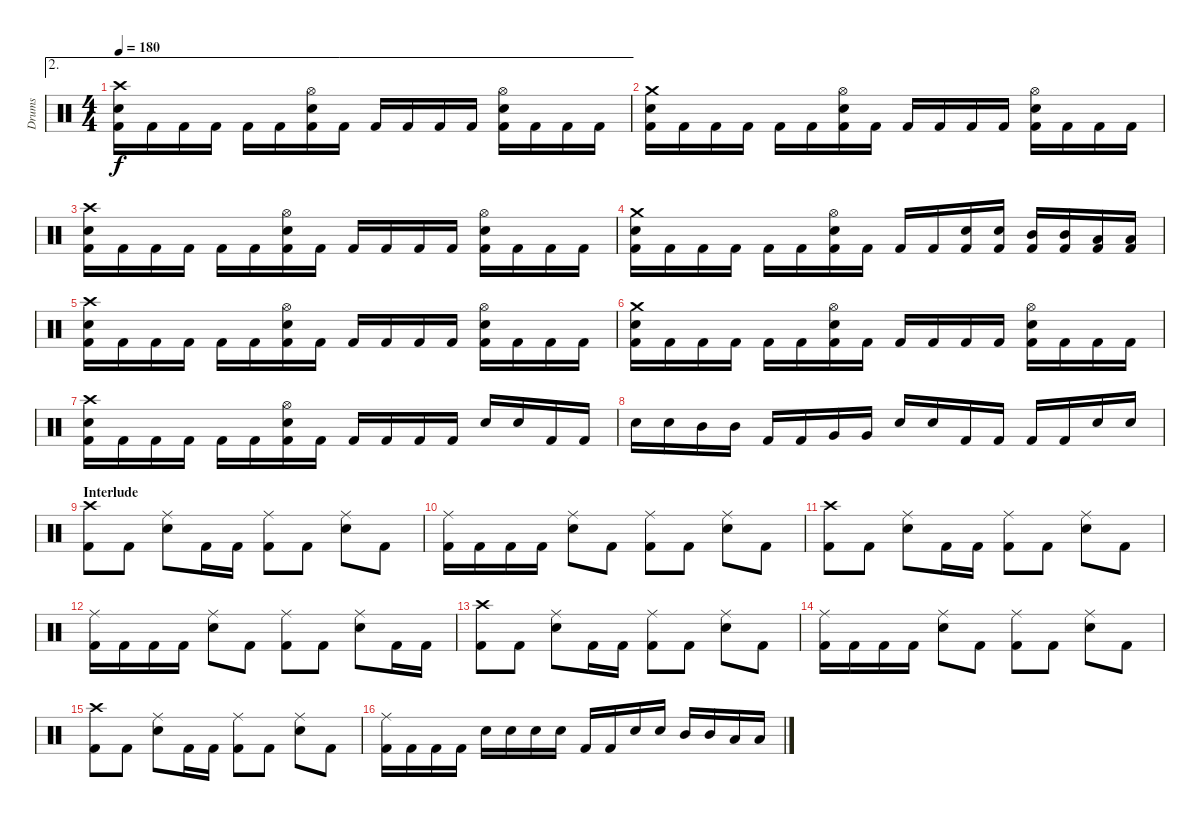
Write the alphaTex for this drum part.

\track ("Drums" "Drums") {instrument percussion}
\staff {score}
\articulation defaults
\ae 2
\ts (4 4)
\tempo 180
\clef neutral
\ks c
("Crash high (hit)" "Electric Snare (hit)" "Kick (hit) 2").16{dy f} "Kick (hit) 2".16 "Kick (hit) 2".16 "Kick (hit) 2".16 "Kick (hit) 2".16 "Kick (hit) 2".16 ("Hi-Hat (open)" "Electric Snare (hit)" "Kick (hit) 2").16 "Kick (hit) 2".16 "Kick (hit) 2".16 "Kick (hit) 2".16 "Kick (hit) 2".16 "Kick (hit) 2".16 ("Hi-Hat (open)" "Electric Snare (hit)" "Kick (hit) 2").16 "Kick (hit) 2".16 "Kick (hit) 2".16 "Kick (hit) 2".16 |
("Crash medium (hit)" "Electric Snare (hit)" "Kick (hit) 2").16 "Kick (hit) 2".16 "Kick (hit) 2".16 "Kick (hit) 2".16 "Kick (hit) 2".16 "Kick (hit) 2".16 ("Hi-Hat (open)" "Electric Snare (hit)" "Kick (hit) 2").16 "Kick (hit) 2".16 "Kick (hit) 2".16 "Kick (hit) 2".16 "Kick (hit) 2".16 "Kick (hit) 2".16 ("Hi-Hat (open)" "Electric Snare (hit)" "Kick (hit) 2").16 "Kick (hit) 2".16 "Kick (hit) 2".16 "Kick (hit) 2".16 |
("Crash high (hit)" "Electric Snare (hit)" "Kick (hit) 2").16 "Kick (hit) 2".16 "Kick (hit) 2".16 "Kick (hit) 2".16 "Kick (hit) 2".16 "Kick (hit) 2".16 ("Hi-Hat (open)" "Electric Snare (hit)" "Kick (hit) 2").16 "Kick (hit) 2".16 "Kick (hit) 2".16 "Kick (hit) 2".16 "Kick (hit) 2".16 "Kick (hit) 2".16 ("Hi-Hat (open)" "Electric Snare (hit)" "Kick (hit) 2").16 "Kick (hit) 2".16 "Kick (hit) 2".16 "Kick (hit) 2".16 |
("Crash medium (hit)" "Electric Snare (hit)" "Kick (hit) 2").16 "Kick (hit) 2".16 "Kick (hit) 2".16 "Kick (hit) 2".16 "Kick (hit) 2".16 "Kick (hit) 2".16 ("Hi-Hat (open)" "Electric Snare (hit)" "Kick (hit) 2").16 "Kick (hit) 2".16 "Kick (hit) 2".16 "Kick (hit) 2".16 ("Electric Snare (hit)" "Kick (hit) 2").16 ("Electric Snare (hit)" "Kick (hit) 2").16 ("Mid Tom (hit)" "Kick (hit) 2").16 ("Mid Tom (hit)" "Kick (hit) 2").16 ("Low Tom (hit)" "Kick (hit) 2").16 ("Low Tom (hit)" "Kick (hit) 2").16 |
("Crash high (hit)" "Electric Snare (hit)" "Kick (hit) 2").16 "Kick (hit) 2".16 "Kick (hit) 2".16 "Kick (hit) 2".16 "Kick (hit) 2".16 "Kick (hit) 2".16 ("Hi-Hat (open)" "Electric Snare (hit)" "Kick (hit) 2").16 "Kick (hit) 2".16 "Kick (hit) 2".16 "Kick (hit) 2".16 "Kick (hit) 2".16 "Kick (hit) 2".16 ("Hi-Hat (open)" "Electric Snare (hit)" "Kick (hit) 2").16 "Kick (hit) 2".16 "Kick (hit) 2".16 "Kick (hit) 2".16 |
("Crash medium (hit)" "Electric Snare (hit)" "Kick (hit) 2").16 "Kick (hit) 2".16 "Kick (hit) 2".16 "Kick (hit) 2".16 "Kick (hit) 2".16 "Kick (hit) 2".16 ("Hi-Hat (open)" "Electric Snare (hit)" "Kick (hit) 2").16 "Kick (hit) 2".16 "Kick (hit) 2".16 "Kick (hit) 2".16 "Kick (hit) 2".16 "Kick (hit) 2".16 ("Hi-Hat (open)" "Electric Snare (hit)" "Kick (hit) 2").16 "Kick (hit) 2".16 "Kick (hit) 2".16 "Kick (hit) 2".16 |
("Crash high (hit)" "Electric Snare (hit)" "Kick (hit) 2").16 "Kick (hit) 2".16 "Kick (hit) 2".16 "Kick (hit) 2".16 "Kick (hit) 2".16 "Kick (hit) 2".16 ("Hi-Hat (open)" "Electric Snare (hit)" "Kick (hit) 2").16 "Kick (hit) 2".16 "Kick (hit) 2".16 "Kick (hit) 2".16 "Kick (hit) 2".16 "Kick (hit) 2".16 "Electric Snare (hit)".16 "Electric Snare (hit)".16 "Kick (hit) 2".16 "Kick (hit) 2".16 |
"Electric Snare (hit)".16 "Electric Snare (hit)".16 "Mid Tom (hit)".16 "Mid Tom (hit)".16 "Kick (hit) 2".16 "Kick (hit) 2".16 "Very Low Tom (hit)".16 "Very Low Tom (hit)".16 "Electric Snare (hit)".16 "Electric Snare (hit)".16 "Kick (hit) 2".16 "Kick (hit) 2".16 "Kick (hit) 2".16 "Kick (hit) 2".16 "Electric Snare (hit)".16 "Electric Snare (hit)".16 |
\section ("" "Interlude")
("Crash high (hit)" "Kick (hit) 2").8 "Kick (hit) 2".8 ("Ride (middle)" "Electric Snare (hit)").8 "Kick (hit) 2".16 "Kick (hit) 2".16 ("Ride (middle)" "Kick (hit) 2").8 "Kick (hit) 2".8 ("Ride (middle)" "Electric Snare (hit)").8 "Kick (hit) 2".8 |
("Ride (middle)" "Kick (hit) 2").16 "Kick (hit) 2".16 "Kick (hit) 2".16 "Kick (hit) 2".16 ("Ride (middle)" "Electric Snare (hit)").8 "Kick (hit) 2".8 ("Ride (middle)" "Kick (hit) 2").8 "Kick (hit) 2".8 ("Ride (middle)" "Electric Snare (hit)").8 "Kick (hit) 2".8 |
("Crash high (hit)" "Kick (hit) 2").8 "Kick (hit) 2".8 ("Ride (middle)" "Electric Snare (hit)").8 "Kick (hit) 2".16 "Kick (hit) 2".16 ("Ride (middle)" "Kick (hit) 2").8 "Kick (hit) 2".8 ("Ride (middle)" "Electric Snare (hit)").8 "Kick (hit) 2".8 |
("Ride (middle)" "Kick (hit) 2").16 "Kick (hit) 2".16 "Kick (hit) 2".16 "Kick (hit) 2".16 ("Ride (middle)" "Electric Snare (hit)").8 "Kick (hit) 2".8 ("Ride (middle)" "Kick (hit) 2").8 "Kick (hit) 2".8 ("Ride (middle)" "Electric Snare (hit)").8 "Kick (hit) 2".16 "Kick (hit) 2".16 |
("Crash high (hit)" "Kick (hit) 2").8 "Kick (hit) 2".8 ("Ride (middle)" "Electric Snare (hit)").8 "Kick (hit) 2".16 "Kick (hit) 2".16 ("Ride (middle)" "Kick (hit) 2").8 "Kick (hit) 2".8 ("Ride (middle)" "Electric Snare (hit)").8 "Kick (hit) 2".8 |
("Ride (middle)" "Kick (hit) 2").16 "Kick (hit) 2".16 "Kick (hit) 2".16 "Kick (hit) 2".16 ("Ride (middle)" "Electric Snare (hit)").8 "Kick (hit) 2".8 ("Ride (middle)" "Kick (hit) 2").8 "Kick (hit) 2".8 ("Ride (middle)" "Electric Snare (hit)").8 "Kick (hit) 2".8 |
("Crash high (hit)" "Kick (hit) 2").8 "Kick (hit) 2".8 ("Ride (middle)" "Electric Snare (hit)").8 "Kick (hit) 2".16 "Kick (hit) 2".16 ("Ride (middle)" "Kick (hit) 2").8 "Kick (hit) 2".8 ("Ride (middle)" "Electric Snare (hit)").8 "Kick (hit) 2".8 |
("Ride (middle)" "Kick (hit) 2").16 "Kick (hit) 2".16 "Kick (hit) 2".16 "Kick (hit) 2".16 "Electric Snare (hit)".16 "Electric Snare (hit)".16 "Electric Snare (hit)".16 "Electric Snare (hit)".16 "Kick (hit) 2".16 "Kick (hit) 2".16 "Electric Snare (hit)".16 "Electric Snare (hit)".16 "Mid Tom (hit)".16 "Mid Tom (hit)".16 "Low Tom (hit)".16 "Low Tom (hit)".16
